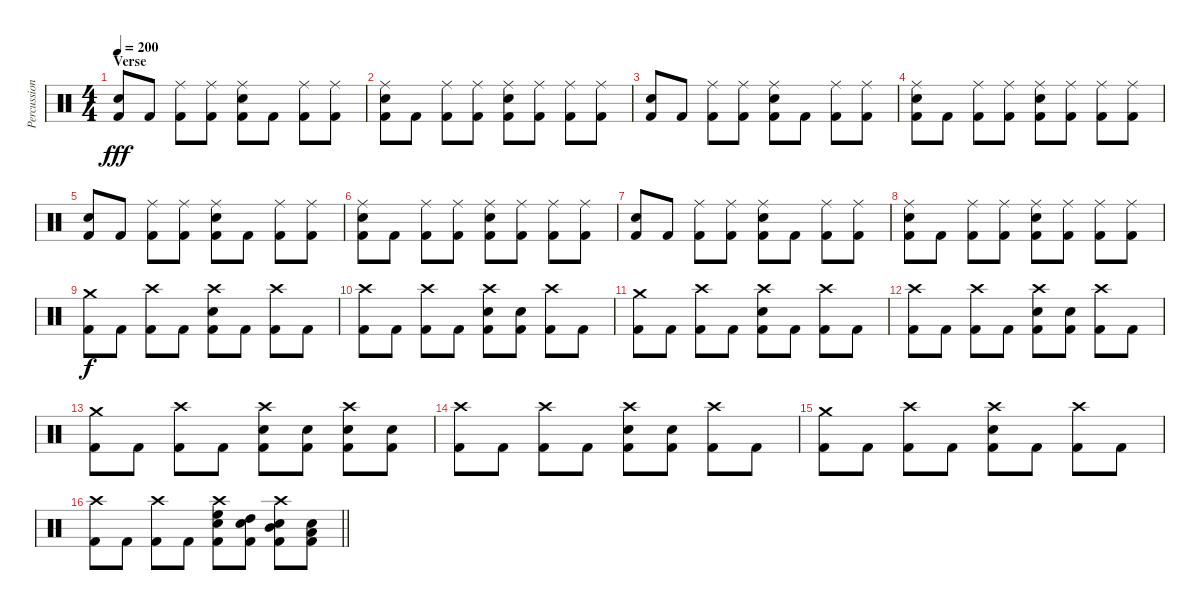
\track ("Percussion" "Percussion") {instrument percussion}
\staff {score}
\articulation defaults
\ts (4 4)
\section ("" "Verse")
\tempo 200
\clef neutral
\ks c
("Electric Snare (hit)" "Kick (hit) 2").8{dy fff} "Kick (hit) 2".8 ("Ride (middle)" "Kick (hit) 2").8 ("Ride (middle)" "Kick (hit) 2").8 ("Ride (middle)" "Electric Snare (hit)" "Kick (hit) 2").8 "Kick (hit) 2".8 ("Ride (middle)" "Kick (hit) 2").8 ("Ride (middle)" "Kick (hit) 2").8 |
("Ride (middle)" "Electric Snare (hit)" "Kick (hit) 2").8 "Kick (hit) 2".8 ("Ride (middle)" "Kick (hit) 2").8 ("Ride (middle)" "Kick (hit) 2").8 ("Ride (middle)" "Electric Snare (hit)" "Kick (hit) 2").8 ("Ride (middle)" "Kick (hit) 2").8 ("Ride (middle)" "Kick (hit) 2").8 ("Ride (middle)" "Kick (hit) 2").8 |
("Electric Snare (hit)" "Kick (hit) 2").8 "Kick (hit) 2".8 ("Ride (middle)" "Kick (hit) 2").8 ("Ride (middle)" "Kick (hit) 2").8 ("Ride (middle)" "Electric Snare (hit)" "Kick (hit) 2").8 "Kick (hit) 2".8 ("Ride (middle)" "Kick (hit) 2").8 ("Ride (middle)" "Kick (hit) 2").8 |
("Ride (middle)" "Electric Snare (hit)" "Kick (hit) 2").8 "Kick (hit) 2".8 ("Ride (middle)" "Kick (hit) 2").8 ("Ride (middle)" "Kick (hit) 2").8 ("Ride (middle)" "Electric Snare (hit)" "Kick (hit) 2").8 ("Ride (middle)" "Kick (hit) 2").8 ("Ride (middle)" "Kick (hit) 2").8 ("Ride (middle)" "Kick (hit) 2").8 |
("Electric Snare (hit)" "Kick (hit) 2").8 "Kick (hit) 2".8 ("Ride (middle)" "Kick (hit) 2").8 ("Ride (middle)" "Kick (hit) 2").8 ("Ride (middle)" "Electric Snare (hit)" "Kick (hit) 2").8 "Kick (hit) 2".8 ("Ride (middle)" "Kick (hit) 2").8 ("Ride (middle)" "Kick (hit) 2").8 |
("Ride (middle)" "Electric Snare (hit)" "Kick (hit) 2").8 "Kick (hit) 2".8 ("Ride (middle)" "Kick (hit) 2").8 ("Ride (middle)" "Kick (hit) 2").8 ("Ride (middle)" "Electric Snare (hit)" "Kick (hit) 2").8 ("Ride (middle)" "Kick (hit) 2").8 ("Ride (middle)" "Kick (hit) 2").8 ("Ride (middle)" "Kick (hit) 2").8 |
("Electric Snare (hit)" "Kick (hit) 2").8 "Kick (hit) 2".8 ("Ride (middle)" "Kick (hit) 2").8 ("Ride (middle)" "Kick (hit) 2").8 ("Ride (middle)" "Electric Snare (hit)" "Kick (hit) 2").8 "Kick (hit) 2".8 ("Ride (middle)" "Kick (hit) 2").8 ("Ride (middle)" "Kick (hit) 2").8 |
("Ride (middle)" "Electric Snare (hit)" "Kick (hit) 2").8 "Kick (hit) 2".8 ("Ride (middle)" "Kick (hit) 2").8 ("Ride (middle)" "Kick (hit) 2").8 ("Ride (middle)" "Electric Snare (hit)" "Kick (hit) 2").8 ("Ride (middle)" "Kick (hit) 2").8 ("Ride (middle)" "Kick (hit) 2").8 ("Ride (middle)" "Kick (hit) 2").8 |
("Crash medium (hit)" "Kick (hit) 2").8{dy f} "Kick (hit) 2".8 ("Crash high (hit)" "Kick (hit) 2").8 "Kick (hit) 2".8 ("Crash high (hit)" "Electric Snare (hit)" "Kick (hit) 2").8 "Kick (hit) 2".8 ("Crash high (hit)" "Kick (hit) 2").8 "Kick (hit) 2".8 |
("Crash high (hit)" "Kick (hit) 2").8 "Kick (hit) 2".8 ("Crash high (hit)" "Kick (hit) 2").8 "Kick (hit) 2".8 ("Crash high (hit)" "Electric Snare (hit)" "Kick (hit) 2").8 ("Electric Snare (hit)" "Kick (hit) 2").8 ("Crash high (hit)" "Kick (hit) 2").8 "Kick (hit) 2".8 |
("Crash medium (hit)" "Kick (hit) 2").8 "Kick (hit) 2".8 ("Crash high (hit)" "Kick (hit) 2").8 "Kick (hit) 2".8 ("Crash high (hit)" "Electric Snare (hit)" "Kick (hit) 2").8 "Kick (hit) 2".8 ("Crash high (hit)" "Kick (hit) 2").8 "Kick (hit) 2".8 |
("Crash high (hit)" "Kick (hit) 2").8 "Kick (hit) 2".8 ("Crash high (hit)" "Kick (hit) 2").8 "Kick (hit) 2".8 ("Crash high (hit)" "Electric Snare (hit)" "Kick (hit) 2").8 ("Electric Snare (hit)" "Kick (hit) 2").8 ("Crash high (hit)" "Kick (hit) 2").8 "Kick (hit) 2".8 |
("Crash medium (hit)" "Kick (hit) 2").8 "Kick (hit) 2".8 ("Crash high (hit)" "Kick (hit) 2").8 "Kick (hit) 2".8 ("Crash high (hit)" "Electric Snare (hit)" "Kick (hit) 2").8 ("Electric Snare (hit)" "Kick (hit) 2").8 ("Crash high (hit)" "Electric Snare (hit)" "Kick (hit) 2").8 ("Electric Snare (hit)" "Kick (hit) 2").8 |
("Crash high (hit)" "Kick (hit) 2").8 "Kick (hit) 2".8 ("Crash high (hit)" "Kick (hit) 2").8 "Kick (hit) 2".8 ("Crash high (hit)" "Electric Snare (hit)" "Kick (hit) 2").8 ("Electric Snare (hit)" "Kick (hit) 2").8 ("Crash high (hit)" "Kick (hit) 2").8 "Kick (hit) 2".8 |
("Crash medium (hit)" "Kick (hit) 2").8 "Kick (hit) 2".8 ("Crash high (hit)" "Kick (hit) 2").8 "Kick (hit) 2".8 ("Crash high (hit)" "Electric Snare (hit)" "Kick (hit) 2").8 "Kick (hit) 2".8 ("Crash high (hit)" "Kick (hit) 2").8 "Kick (hit) 2".8 |
\barLineRight lightlight
("Crash high (hit)" "Kick (hit) 2").8 "Kick (hit) 2".8 ("Crash high (hit)" "Kick (hit) 2").8 "Kick (hit) 2".8 ("Crash high (hit)" "High Floor Tom (hit)" "Electric Snare (hit)" "Kick (hit) 2").8 ("High Tom (hit)" "Electric Snare (hit)" "Kick (hit) 2").8 ("Crash high (hit)" "Mid Tom (hit)" "Electric Snare (hit)" "Kick (hit) 2").8 ("Low Tom (hit)" "Electric Snare (hit)" "Kick (hit) 2").8
